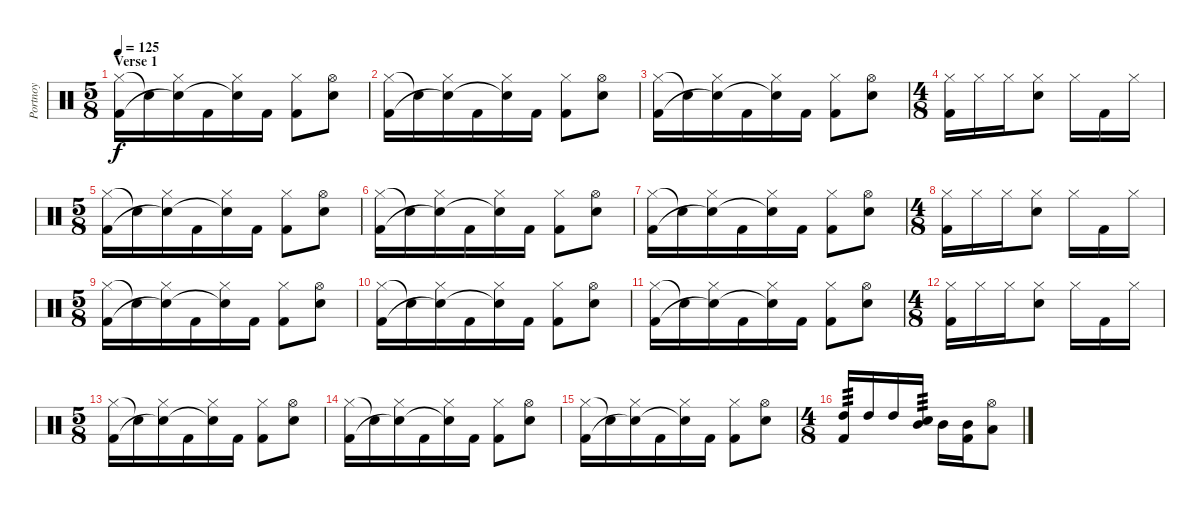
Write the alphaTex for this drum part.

\track ("Portnoy" "Portnoy") {instrument percussion}
\staff {score}
\articulation defaults
\ts (5 8)
\section ("" "Verse 1")
\tempo 125
\clef neutral
\ks c
("Hi-Hat (closed)" "Kick (hit) 2").16{dy f} "Snare (hit)"{t}.16 ("Hi-Hat (closed)" "Snare (hit)"{t}).16 "Kick (hit) 2".16 ("Hi-Hat (closed)" "Snare (hit)"{t}).16 "Kick (hit) 2".16 ("Hi-Hat (closed)" "Kick (hit) 2").8 ("Hi-Hat (open)" "Snare (hit) 2").8 |
("Hi-Hat (closed)" "Kick (hit) 2").16 "Snare (hit)"{t}.16 ("Hi-Hat (closed)" "Snare (hit)"{t}).16 "Kick (hit) 2".16 ("Hi-Hat (closed)" "Snare (hit)"{t}).16 "Kick (hit) 2".16 ("Hi-Hat (closed)" "Kick (hit) 2").8 ("Hi-Hat (open)" "Snare (hit) 2").8 |
("Hi-Hat (closed)" "Kick (hit) 2").16 "Snare (hit)"{t}.16 ("Hi-Hat (closed)" "Snare (hit)"{t}).16 "Kick (hit) 2".16 ("Hi-Hat (closed)" "Snare (hit)"{t}).16 "Kick (hit) 2".16 ("Hi-Hat (closed)" "Kick (hit) 2").8 ("Hi-Hat (open)" "Snare (hit) 2").8 |
\ts (4 8)
("Hi-Hat (closed)" "Kick (hit) 2").16 "Hi-Hat (closed)".16 "Hi-Hat (closed)".16 ("Hi-Hat (closed)" "Snare (hit) 2").8 "Hi-Hat (closed)".16 "Kick (hit) 2".16 "Hi-Hat (closed)".16 |
\ts (5 8)
("Hi-Hat (closed)" "Kick (hit) 2").16 "Snare (hit)"{t}.16 ("Hi-Hat (closed)" "Snare (hit)"{t}).16 "Kick (hit) 2".16 ("Hi-Hat (closed)" "Snare (hit)"{t}).16 "Kick (hit) 2".16 ("Hi-Hat (closed)" "Kick (hit) 2").8 ("Hi-Hat (open)" "Snare (hit) 2").8 |
("Hi-Hat (closed)" "Kick (hit) 2").16 "Snare (hit)"{t}.16 ("Hi-Hat (closed)" "Snare (hit)"{t}).16 "Kick (hit) 2".16 ("Hi-Hat (closed)" "Snare (hit)"{t}).16 "Kick (hit) 2".16 ("Hi-Hat (closed)" "Kick (hit) 2").8 ("Hi-Hat (open)" "Snare (hit) 2").8 |
("Hi-Hat (closed)" "Kick (hit) 2").16 "Snare (hit)"{t}.16 ("Hi-Hat (closed)" "Snare (hit)"{t}).16 "Kick (hit) 2".16 ("Hi-Hat (closed)" "Snare (hit)"{t}).16 "Kick (hit) 2".16 ("Hi-Hat (closed)" "Kick (hit) 2").8 ("Hi-Hat (open)" "Snare (hit) 2").8 |
\ts (4 8)
("Hi-Hat (closed)" "Kick (hit) 2").16 "Hi-Hat (closed)".16 "Hi-Hat (closed)".16 ("Hi-Hat (closed)" "Snare (hit) 2").8 "Hi-Hat (closed)".16 "Kick (hit) 2".16 "Hi-Hat (closed)".16 |
\ts (5 8)
("Hi-Hat (closed)" "Kick (hit) 2").16 "Snare (hit)"{t}.16 ("Hi-Hat (closed)" "Snare (hit)"{t}).16 "Kick (hit) 2".16 ("Hi-Hat (closed)" "Snare (hit)"{t}).16 "Kick (hit) 2".16 ("Hi-Hat (closed)" "Kick (hit) 2").8 ("Hi-Hat (open)" "Snare (hit) 2").8 |
("Hi-Hat (closed)" "Kick (hit) 2").16 "Snare (hit)"{t}.16 ("Hi-Hat (closed)" "Snare (hit)"{t}).16 "Kick (hit) 2".16 ("Hi-Hat (closed)" "Snare (hit)"{t}).16 "Kick (hit) 2".16 ("Hi-Hat (closed)" "Kick (hit) 2").8 ("Hi-Hat (open)" "Snare (hit) 2").8 |
("Hi-Hat (closed)" "Kick (hit) 2").16 "Snare (hit)"{t}.16 ("Hi-Hat (closed)" "Snare (hit)"{t}).16 "Kick (hit) 2".16 ("Hi-Hat (closed)" "Snare (hit)"{t}).16 "Kick (hit) 2".16 ("Hi-Hat (closed)" "Kick (hit) 2").8 ("Hi-Hat (open)" "Snare (hit) 2").8 |
\ts (4 8)
("Hi-Hat (closed)" "Kick (hit) 2").16 "Hi-Hat (closed)".16 "Hi-Hat (closed)".16 ("Hi-Hat (closed)" "Snare (hit) 2").8 "Hi-Hat (closed)".16 "Kick (hit) 2".16 "Hi-Hat (closed)".16 |
\ts (5 8)
("Hi-Hat (closed)" "Kick (hit) 2").16 "Snare (hit)"{t}.16 ("Hi-Hat (closed)" "Snare (hit)"{t}).16 "Kick (hit) 2".16 ("Hi-Hat (closed)" "Snare (hit)"{t}).16 "Kick (hit) 2".16 ("Hi-Hat (closed)" "Kick (hit) 2").8 ("Hi-Hat (open)" "Snare (hit) 2").8 |
("Hi-Hat (closed)" "Kick (hit) 2").16 "Snare (hit)"{t}.16 ("Hi-Hat (closed)" "Snare (hit)"{t}).16 "Kick (hit) 2".16 ("Hi-Hat (closed)" "Snare (hit)"{t}).16 "Kick (hit) 2".16 ("Hi-Hat (closed)" "Kick (hit) 2").8 ("Hi-Hat (open)" "Snare (hit) 2").8 |
("Hi-Hat (closed)" "Kick (hit) 2").16 "Snare (hit)"{t}.16 ("Hi-Hat (closed)" "Snare (hit)"{t}).16 "Kick (hit) 2".16 ("Hi-Hat (closed)" "Snare (hit)"{t}).16 "Kick (hit) 2".16 ("Hi-Hat (closed)" "Kick (hit) 2").8 ("Hi-Hat (open)" "Snare (hit) 2").8 |
\ts (4 8)
("High Tom (hit)" "Kick (hit) 2").16{tp 3} "High Tom (hit)".16 "High Tom (hit)".16 ("Mid Tom (hit)" "Snare (hit) 2").16{tp 3} "Mid Tom (hit)".16 ("Mid Tom (hit)" "Kick (hit) 2").16 ("Hi-Hat (open)" "Low Tom (hit)").8
